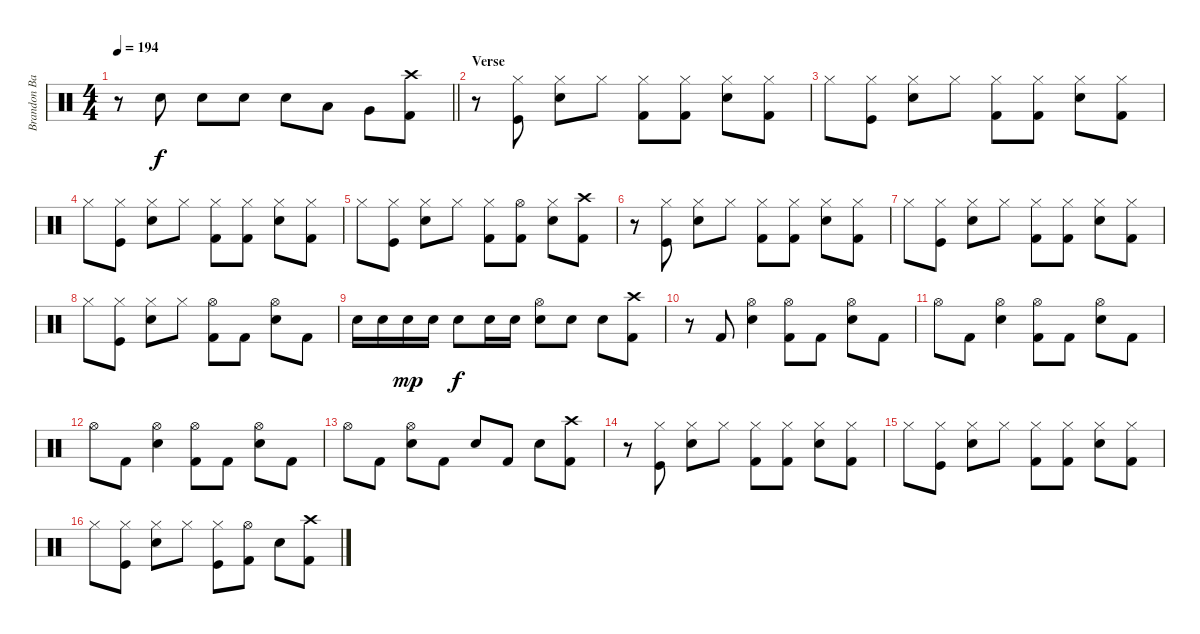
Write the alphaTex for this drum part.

\track ("Brandon Barnes - Drums" "Brandon Ba") {instrument percussion}
\staff {score}
\articulation defaults
\ts (4 4)
\tempo 194
\clef neutral
\barLineRight lightlight
\ks c
r.8{dy f} "Snare (hit) 2".8 "Snare (hit) 2".8 "Snare (hit) 2".8 "Snare (hit) 2".8 "Low Tom (hit)".8 "Very Low Tom (hit)".8 ("Kick (hit) 2" "Crash high (hit)").8 |
\section ("" "Verse")
r.8 ("Kick (hit)" "Hi-Hat (closed)").8 ("Snare (hit) 2" "Hi-Hat (closed)").8 "Hi-Hat (closed)".8 ("Kick (hit) 2" "Hi-Hat (closed)").8 ("Kick (hit) 2" "Hi-Hat (closed)").8 ("Snare (hit) 2" "Hi-Hat (closed)").8 ("Kick (hit) 2" "Hi-Hat (closed)").8 |
"Hi-Hat (closed)".8 ("Kick (hit)" "Hi-Hat (closed)").8 ("Snare (hit) 2" "Hi-Hat (closed)").8 "Hi-Hat (closed)".8 ("Kick (hit) 2" "Hi-Hat (closed)").8 ("Kick (hit) 2" "Hi-Hat (closed)").8 ("Snare (hit) 2" "Hi-Hat (closed)").8 ("Kick (hit) 2" "Hi-Hat (closed)").8 |
"Hi-Hat (closed)".8 ("Kick (hit)" "Hi-Hat (closed)").8 ("Snare (hit) 2" "Hi-Hat (closed)").8 "Hi-Hat (closed)".8 ("Kick (hit) 2" "Hi-Hat (closed)").8 ("Kick (hit) 2" "Hi-Hat (closed)").8 ("Snare (hit) 2" "Hi-Hat (closed)").8 ("Kick (hit) 2" "Hi-Hat (closed)").8 |
"Hi-Hat (closed)".8 ("Kick (hit)" "Hi-Hat (closed)").8 ("Snare (hit) 2" "Hi-Hat (closed)").8 "Hi-Hat (closed)".8 ("Kick (hit) 2" "Hi-Hat (closed)").8 ("Kick (hit) 2" "Hi-Hat (open)").8 ("Snare (hit) 2" "Hi-Hat (closed)").8 ("Kick (hit) 2" "Crash high (hit)").8 |
r.8 ("Kick (hit)" "Hi-Hat (closed)").8 ("Snare (hit) 2" "Hi-Hat (closed)").8 "Hi-Hat (closed)".8 ("Kick (hit) 2" "Hi-Hat (closed)").8 ("Kick (hit) 2" "Hi-Hat (closed)").8 ("Snare (hit) 2" "Hi-Hat (closed)").8 ("Kick (hit) 2" "Hi-Hat (closed)").8 |
"Hi-Hat (closed)".8 ("Kick (hit)" "Hi-Hat (closed)").8 ("Snare (hit) 2" "Hi-Hat (closed)").8 "Hi-Hat (closed)".8 ("Kick (hit) 2" "Hi-Hat (closed)").8 ("Kick (hit) 2" "Hi-Hat (closed)").8 ("Snare (hit) 2" "Hi-Hat (closed)").8 ("Kick (hit) 2" "Hi-Hat (closed)").8 |
"Hi-Hat (closed)".8 ("Kick (hit)" "Hi-Hat (closed)").8 ("Snare (hit) 2" "Hi-Hat (closed)").8 "Hi-Hat (closed)".8 ("Kick (hit) 2" "Hi-Hat (open)").8 "Kick (hit) 2".8 ("Snare (hit) 2" "Hi-Hat (open)").8 "Kick (hit) 2".8 |
"Snare (hit) 2".16 "Snare (hit) 2".16 "Snare (hit) 2".16{dy mp} "Snare (hit) 2".16 "Snare (hit) 2".8{dy f} "Snare (hit) 2".16 "Snare (hit) 2".16 ("Hi-Hat (open)" "Snare (hit) 2").8 "Snare (hit) 2".8 "Snare (hit) 2".8 ("Kick (hit) 2" "Crash high (hit)").8 |
r.8 "Kick (hit) 2".8 ("Snare (hit) 2" "Hi-Hat (open)").4 ("Kick (hit) 2" "Hi-Hat (open)").8 "Kick (hit) 2".8 ("Snare (hit) 2" "Hi-Hat (open)").8 "Kick (hit) 2".8 |
"Hi-Hat (open)".8 "Kick (hit) 2".8 ("Snare (hit) 2" "Hi-Hat (open)").4 ("Kick (hit) 2" "Hi-Hat (open)").8 "Kick (hit) 2".8 ("Snare (hit) 2" "Hi-Hat (open)").8 "Kick (hit) 2".8 |
"Hi-Hat (open)".8 "Kick (hit) 2".8 ("Snare (hit) 2" "Hi-Hat (open)").4 ("Kick (hit) 2" "Hi-Hat (open)").8 "Kick (hit) 2".8 ("Snare (hit) 2" "Hi-Hat (open)").8 "Kick (hit) 2".8 |
"Hi-Hat (open)".8 "Kick (hit) 2".8 ("Snare (hit) 2" "Hi-Hat (open)").8 "Kick (hit) 2".8 "Snare (hit) 2".8 "Kick (hit) 2".8 "Snare (hit) 2".8 ("Kick (hit) 2" "Crash high (hit)").8 |
r.8 ("Kick (hit)" "Hi-Hat (closed)").8 ("Snare (hit) 2" "Hi-Hat (closed)").8 "Hi-Hat (closed)".8 ("Kick (hit) 2" "Hi-Hat (closed)").8 ("Kick (hit) 2" "Hi-Hat (closed)").8 ("Snare (hit) 2" "Hi-Hat (closed)").8 ("Kick (hit) 2" "Hi-Hat (closed)").8 |
"Hi-Hat (closed)".8 ("Kick (hit)" "Hi-Hat (closed)").8 ("Snare (hit) 2" "Hi-Hat (closed)").8 "Hi-Hat (closed)".8 ("Kick (hit) 2" "Hi-Hat (closed)").8 ("Kick (hit) 2" "Hi-Hat (closed)").8 ("Snare (hit) 2" "Hi-Hat (closed)").8 ("Kick (hit) 2" "Hi-Hat (closed)").8 |
"Hi-Hat (closed)".8 ("Kick (hit)" "Hi-Hat (closed)").8 ("Snare (hit) 2" "Hi-Hat (closed)").8 "Hi-Hat (closed)".8 ("Kick (hit)" "Hi-Hat (closed)").8 ("Kick (hit) 2" "Hi-Hat (open)").8 "Snare (hit) 2".8 ("Kick (hit) 2" "Crash high (hit)").8
